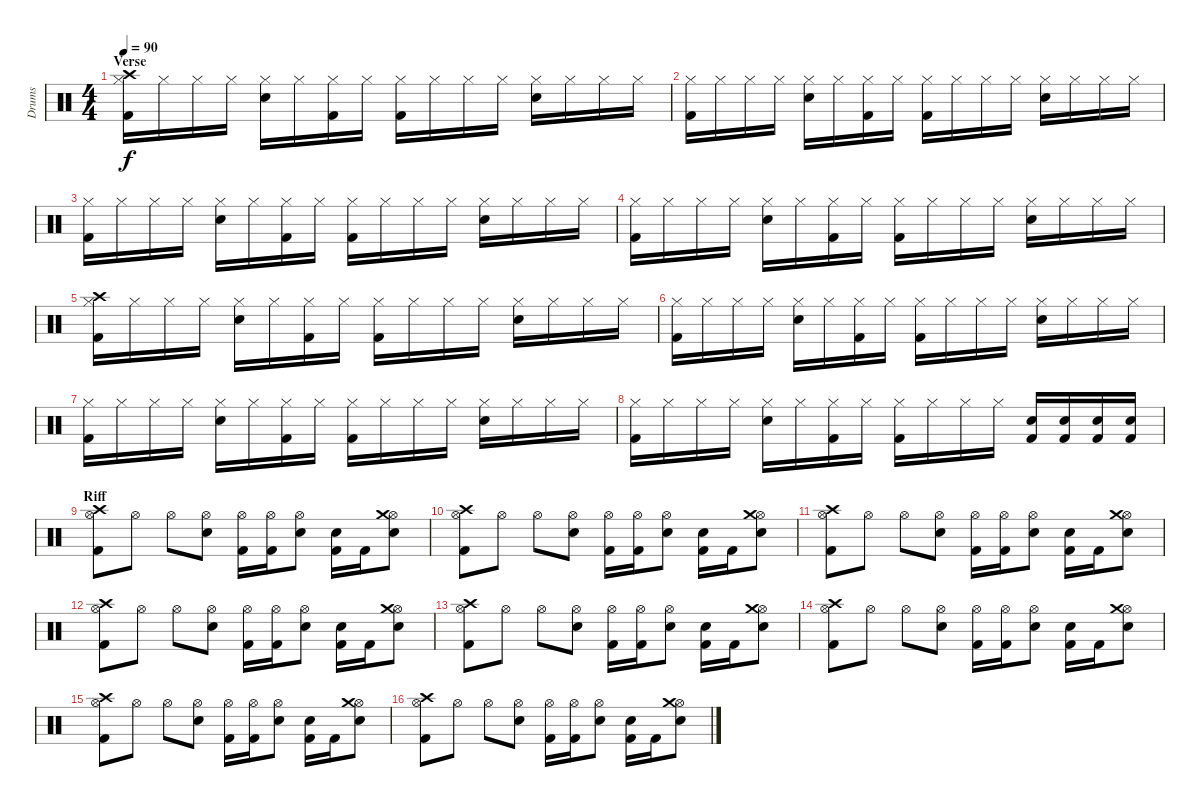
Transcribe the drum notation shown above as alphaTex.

\track ("Drums" "Drums") {instrument percussion}
\staff {score}
\articulation defaults
\ts (4 4)
\section ("" "Verse")
\tempo 90
\clef neutral
\ks c
("Hi-Hat (closed)" "Kick (hit) 2" "Crash high (hit)").16{dy f} "Hi-Hat (closed)".16 "Hi-Hat (closed)".16 "Hi-Hat (closed)".16 ("Hi-Hat (closed)" "Electric Snare (hit)").16 "Hi-Hat (closed)".16 ("Hi-Hat (closed)" "Kick (hit) 2").16 "Hi-Hat (closed)".16 ("Hi-Hat (closed)" "Kick (hit) 2").16 "Hi-Hat (closed)".16 "Hi-Hat (closed)".16 "Hi-Hat (closed)".16 ("Hi-Hat (closed)" "Electric Snare (hit)").16 "Hi-Hat (closed)".16 "Hi-Hat (closed)".16 "Hi-Hat (closed)".16 |
("Hi-Hat (closed)" "Kick (hit) 2").16 "Hi-Hat (closed)".16 "Hi-Hat (closed)".16 "Hi-Hat (closed)".16 ("Hi-Hat (closed)" "Electric Snare (hit)").16 "Hi-Hat (closed)".16 ("Hi-Hat (closed)" "Kick (hit) 2").16 "Hi-Hat (closed)".16 ("Hi-Hat (closed)" "Kick (hit) 2").16 "Hi-Hat (closed)".16 "Hi-Hat (closed)".16 "Hi-Hat (closed)".16 ("Hi-Hat (closed)" "Electric Snare (hit)").16 "Hi-Hat (closed)".16 "Hi-Hat (closed)".16 "Hi-Hat (closed)".16 |
("Hi-Hat (closed)" "Kick (hit) 2").16 "Hi-Hat (closed)".16 "Hi-Hat (closed)".16 "Hi-Hat (closed)".16 ("Hi-Hat (closed)" "Electric Snare (hit)").16 "Hi-Hat (closed)".16 ("Hi-Hat (closed)" "Kick (hit) 2").16 "Hi-Hat (closed)".16 ("Hi-Hat (closed)" "Kick (hit) 2").16 "Hi-Hat (closed)".16 "Hi-Hat (closed)".16 "Hi-Hat (closed)".16 ("Hi-Hat (closed)" "Electric Snare (hit)").16 "Hi-Hat (closed)".16 "Hi-Hat (closed)".16 "Hi-Hat (closed)".16 |
("Hi-Hat (closed)" "Kick (hit) 2").16 "Hi-Hat (closed)".16 "Hi-Hat (closed)".16 "Hi-Hat (closed)".16 ("Hi-Hat (closed)" "Electric Snare (hit)").16 "Hi-Hat (closed)".16 ("Hi-Hat (closed)" "Kick (hit) 2").16 "Hi-Hat (closed)".16 ("Hi-Hat (closed)" "Kick (hit) 2").16 "Hi-Hat (closed)".16 "Hi-Hat (closed)".16 "Hi-Hat (closed)".16 ("Hi-Hat (closed)" "Electric Snare (hit)").16 "Hi-Hat (closed)".16 "Hi-Hat (closed)".16 "Hi-Hat (closed)".16 |
("Hi-Hat (closed)" "Kick (hit) 2" "Crash high (hit)").16 "Hi-Hat (closed)".16 "Hi-Hat (closed)".16 "Hi-Hat (closed)".16 ("Hi-Hat (closed)" "Electric Snare (hit)").16 "Hi-Hat (closed)".16 ("Hi-Hat (closed)" "Kick (hit) 2").16 "Hi-Hat (closed)".16 ("Hi-Hat (closed)" "Kick (hit) 2").16 "Hi-Hat (closed)".16 "Hi-Hat (closed)".16 "Hi-Hat (closed)".16 ("Hi-Hat (closed)" "Electric Snare (hit)").16 "Hi-Hat (closed)".16 "Hi-Hat (closed)".16 "Hi-Hat (closed)".16 |
("Hi-Hat (closed)" "Kick (hit) 2").16 "Hi-Hat (closed)".16 "Hi-Hat (closed)".16 "Hi-Hat (closed)".16 ("Hi-Hat (closed)" "Electric Snare (hit)").16 "Hi-Hat (closed)".16 ("Hi-Hat (closed)" "Kick (hit) 2").16 "Hi-Hat (closed)".16 ("Hi-Hat (closed)" "Kick (hit) 2").16 "Hi-Hat (closed)".16 "Hi-Hat (closed)".16 "Hi-Hat (closed)".16 ("Hi-Hat (closed)" "Electric Snare (hit)").16 "Hi-Hat (closed)".16 "Hi-Hat (closed)".16 "Hi-Hat (closed)".16 |
("Hi-Hat (closed)" "Kick (hit) 2").16 "Hi-Hat (closed)".16 "Hi-Hat (closed)".16 "Hi-Hat (closed)".16 ("Hi-Hat (closed)" "Electric Snare (hit)").16 "Hi-Hat (closed)".16 ("Hi-Hat (closed)" "Kick (hit) 2").16 "Hi-Hat (closed)".16 ("Hi-Hat (closed)" "Kick (hit) 2").16 "Hi-Hat (closed)".16 "Hi-Hat (closed)".16 "Hi-Hat (closed)".16 ("Hi-Hat (closed)" "Electric Snare (hit)").16 "Hi-Hat (closed)".16 "Hi-Hat (closed)".16 "Hi-Hat (closed)".16 |
("Hi-Hat (closed)" "Kick (hit) 2").16 "Hi-Hat (closed)".16 "Hi-Hat (closed)".16 "Hi-Hat (closed)".16 ("Hi-Hat (closed)" "Electric Snare (hit)").16 "Hi-Hat (closed)".16 ("Hi-Hat (closed)" "Kick (hit) 2").16 "Hi-Hat (closed)".16 ("Hi-Hat (closed)" "Kick (hit) 2").16 "Hi-Hat (closed)".16 "Hi-Hat (closed)".16 "Hi-Hat (closed)".16 ("Kick (hit) 2" "Electric Snare (hit)").16 ("Kick (hit) 2" "Electric Snare (hit)").16 ("Kick (hit) 2" "Electric Snare (hit)").16 ("Kick (hit) 2" "Electric Snare (hit)").16 |
\section ("" "Riff")
("Hi-Hat (open)" "Kick (hit) 2" "Crash high (hit)").8 "Hi-Hat (open)".8 "Hi-Hat (open)".8 ("Hi-Hat (open)" "Electric Snare (hit)").8 ("Hi-Hat (open)" "Kick (hit) 2").16 ("Hi-Hat (open)" "Kick (hit) 2").16 ("Electric Snare (hit)" "Hi-Hat (open)").8 ("Electric Snare (hit)" "Kick (hit) 2").16 "Kick (hit) 2".16 ("Electric Snare (hit)" "Hi-Hat (open)" "Crash medium (hit)").8 |
("Hi-Hat (open)" "Kick (hit) 2" "Crash high (hit)").8 "Hi-Hat (open)".8 "Hi-Hat (open)".8 ("Hi-Hat (open)" "Electric Snare (hit)").8 ("Hi-Hat (open)" "Kick (hit) 2").16 ("Hi-Hat (open)" "Kick (hit) 2").16 ("Electric Snare (hit)" "Hi-Hat (open)").8 ("Electric Snare (hit)" "Kick (hit) 2").16 "Kick (hit) 2".16 ("Electric Snare (hit)" "Hi-Hat (open)" "Crash medium (hit)").8 |
("Hi-Hat (open)" "Kick (hit) 2" "Crash high (hit)").8 "Hi-Hat (open)".8 "Hi-Hat (open)".8 ("Hi-Hat (open)" "Electric Snare (hit)").8 ("Hi-Hat (open)" "Kick (hit) 2").16 ("Hi-Hat (open)" "Kick (hit) 2").16 ("Electric Snare (hit)" "Hi-Hat (open)").8 ("Electric Snare (hit)" "Kick (hit) 2").16 "Kick (hit) 2".16 ("Electric Snare (hit)" "Hi-Hat (open)" "Crash medium (hit)").8 |
("Hi-Hat (open)" "Kick (hit) 2" "Crash high (hit)").8 "Hi-Hat (open)".8 "Hi-Hat (open)".8 ("Hi-Hat (open)" "Electric Snare (hit)").8 ("Hi-Hat (open)" "Kick (hit) 2").16 ("Hi-Hat (open)" "Kick (hit) 2").16 ("Electric Snare (hit)" "Hi-Hat (open)").8 ("Electric Snare (hit)" "Kick (hit) 2").16 "Kick (hit) 2".16 ("Electric Snare (hit)" "Hi-Hat (open)" "Crash medium (hit)").8 |
("Hi-Hat (open)" "Kick (hit) 2" "Crash high (hit)").8 "Hi-Hat (open)".8 "Hi-Hat (open)".8 ("Hi-Hat (open)" "Electric Snare (hit)").8 ("Hi-Hat (open)" "Kick (hit) 2").16 ("Hi-Hat (open)" "Kick (hit) 2").16 ("Electric Snare (hit)" "Hi-Hat (open)").8 ("Electric Snare (hit)" "Kick (hit) 2").16 "Kick (hit) 2".16 ("Electric Snare (hit)" "Hi-Hat (open)" "Crash medium (hit)").8 |
("Hi-Hat (open)" "Kick (hit) 2" "Crash high (hit)").8 "Hi-Hat (open)".8 "Hi-Hat (open)".8 ("Hi-Hat (open)" "Electric Snare (hit)").8 ("Hi-Hat (open)" "Kick (hit) 2").16 ("Hi-Hat (open)" "Kick (hit) 2").16 ("Electric Snare (hit)" "Hi-Hat (open)").8 ("Electric Snare (hit)" "Kick (hit) 2").16 "Kick (hit) 2".16 ("Electric Snare (hit)" "Hi-Hat (open)" "Crash medium (hit)").8 |
("Hi-Hat (open)" "Kick (hit) 2" "Crash high (hit)").8 "Hi-Hat (open)".8 "Hi-Hat (open)".8 ("Hi-Hat (open)" "Electric Snare (hit)").8 ("Hi-Hat (open)" "Kick (hit) 2").16 ("Hi-Hat (open)" "Kick (hit) 2").16 ("Electric Snare (hit)" "Hi-Hat (open)").8 ("Electric Snare (hit)" "Kick (hit) 2").16 "Kick (hit) 2".16 ("Electric Snare (hit)" "Hi-Hat (open)" "Crash medium (hit)").8 |
("Hi-Hat (open)" "Kick (hit) 2" "Crash high (hit)").8 "Hi-Hat (open)".8 "Hi-Hat (open)".8 ("Hi-Hat (open)" "Electric Snare (hit)").8 ("Hi-Hat (open)" "Kick (hit) 2").16 ("Hi-Hat (open)" "Kick (hit) 2").16 ("Electric Snare (hit)" "Hi-Hat (open)").8 ("Electric Snare (hit)" "Kick (hit) 2").16 "Kick (hit) 2".16 ("Electric Snare (hit)" "Hi-Hat (open)" "Crash medium (hit)").8
